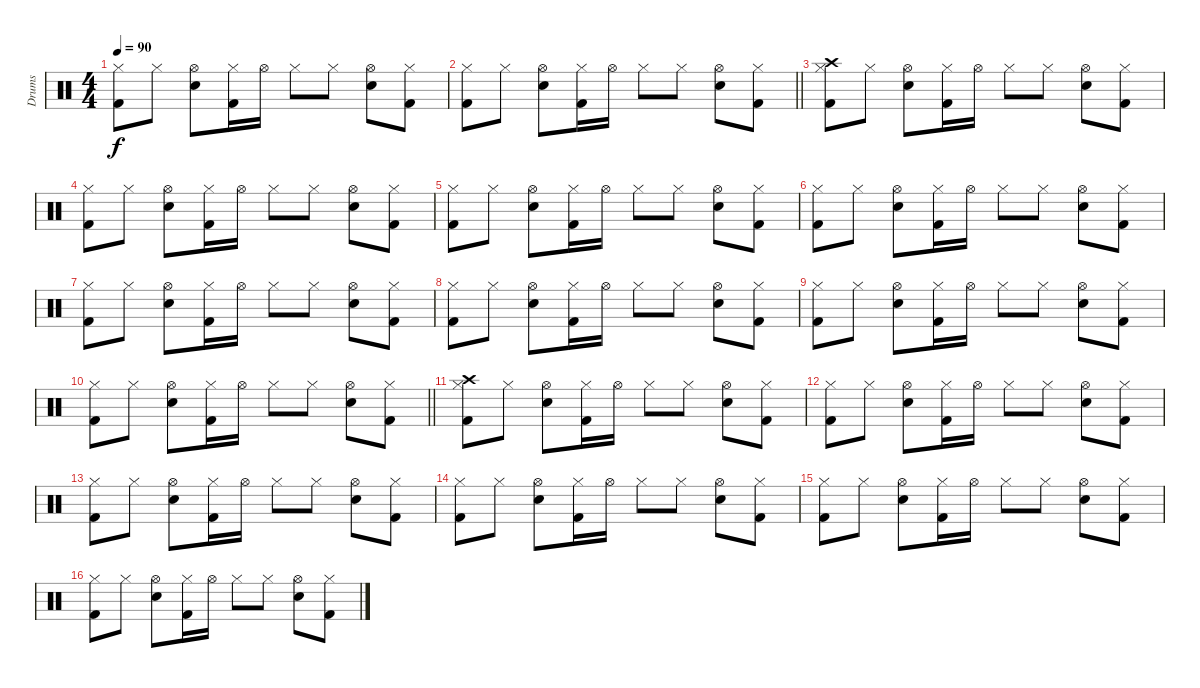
\track ("Drums" "Drums") {instrument percussion}
\staff {score}
\articulation defaults
\ts (4 4)
\tempo 90
\clef neutral
\ks c
("Kick (hit) 2" "Hi-Hat (closed)").8{dy f} "Hi-Hat (closed)".8 ("Snare (hit) 2" "Hi-Hat (open)").8 ("Kick (hit) 2" "Hi-Hat (closed)").16 "Hi-Hat (open)".16 "Hi-Hat (closed)".8 "Hi-Hat (closed)".8 ("Snare (hit) 2" "Hi-Hat (open)").8 ("Kick (hit) 2" "Hi-Hat (closed)").8 |
\barLineRight lightlight
("Kick (hit) 2" "Hi-Hat (closed)").8 "Hi-Hat (closed)".8 ("Snare (hit) 2" "Hi-Hat (open)").8 ("Kick (hit) 2" "Hi-Hat (closed)").16 "Hi-Hat (open)".16 "Hi-Hat (closed)".8 "Hi-Hat (closed)".8 ("Snare (hit) 2" "Hi-Hat (open)").8 ("Kick (hit) 2" "Hi-Hat (closed)").8 |
("Crash high (hit)" "Kick (hit) 2" "Hi-Hat (closed)").8 "Hi-Hat (closed)".8 ("Snare (hit) 2" "Hi-Hat (open)").8 ("Kick (hit) 2" "Hi-Hat (closed)").16 "Hi-Hat (open)".16 "Hi-Hat (closed)".8 "Hi-Hat (closed)".8 ("Snare (hit) 2" "Hi-Hat (open)").8 ("Kick (hit) 2" "Hi-Hat (closed)").8 |
("Kick (hit) 2" "Hi-Hat (closed)").8 "Hi-Hat (closed)".8 ("Snare (hit) 2" "Hi-Hat (open)").8 ("Kick (hit) 2" "Hi-Hat (closed)").16 "Hi-Hat (open)".16 "Hi-Hat (closed)".8 "Hi-Hat (closed)".8 ("Snare (hit) 2" "Hi-Hat (open)").8 ("Kick (hit) 2" "Hi-Hat (closed)").8 |
("Kick (hit) 2" "Hi-Hat (closed)").8 "Hi-Hat (closed)".8 ("Snare (hit) 2" "Hi-Hat (open)").8 ("Kick (hit) 2" "Hi-Hat (closed)").16 "Hi-Hat (open)".16 "Hi-Hat (closed)".8 "Hi-Hat (closed)".8 ("Snare (hit) 2" "Hi-Hat (open)").8 ("Kick (hit) 2" "Hi-Hat (closed)").8 |
("Kick (hit) 2" "Hi-Hat (closed)").8 "Hi-Hat (closed)".8 ("Snare (hit) 2" "Hi-Hat (open)").8 ("Kick (hit) 2" "Hi-Hat (closed)").16 "Hi-Hat (open)".16 "Hi-Hat (closed)".8 "Hi-Hat (closed)".8 ("Snare (hit) 2" "Hi-Hat (open)").8 ("Kick (hit) 2" "Hi-Hat (closed)").8 |
("Kick (hit) 2" "Hi-Hat (closed)").8 "Hi-Hat (closed)".8 ("Snare (hit) 2" "Hi-Hat (open)").8 ("Kick (hit) 2" "Hi-Hat (closed)").16 "Hi-Hat (open)".16 "Hi-Hat (closed)".8 "Hi-Hat (closed)".8 ("Snare (hit) 2" "Hi-Hat (open)").8 ("Kick (hit) 2" "Hi-Hat (closed)").8 |
("Kick (hit) 2" "Hi-Hat (closed)").8 "Hi-Hat (closed)".8 ("Snare (hit) 2" "Hi-Hat (open)").8 ("Kick (hit) 2" "Hi-Hat (closed)").16 "Hi-Hat (open)".16 "Hi-Hat (closed)".8 "Hi-Hat (closed)".8 ("Snare (hit) 2" "Hi-Hat (open)").8 ("Kick (hit) 2" "Hi-Hat (closed)").8 |
("Kick (hit) 2" "Hi-Hat (closed)").8 "Hi-Hat (closed)".8 ("Snare (hit) 2" "Hi-Hat (open)").8 ("Kick (hit) 2" "Hi-Hat (closed)").16 "Hi-Hat (open)".16 "Hi-Hat (closed)".8 "Hi-Hat (closed)".8 ("Snare (hit) 2" "Hi-Hat (open)").8 ("Kick (hit) 2" "Hi-Hat (closed)").8 |
\barLineRight lightlight
("Kick (hit) 2" "Hi-Hat (closed)").8 "Hi-Hat (closed)".8 ("Snare (hit) 2" "Hi-Hat (open)").8 ("Kick (hit) 2" "Hi-Hat (closed)").16 "Hi-Hat (open)".16 "Hi-Hat (closed)".8 "Hi-Hat (closed)".8 ("Snare (hit) 2" "Hi-Hat (open)").8 ("Kick (hit) 2" "Hi-Hat (closed)").8 |
("Crash high (hit)" "Kick (hit) 2" "Hi-Hat (closed)").8 "Hi-Hat (closed)".8 ("Snare (hit) 2" "Hi-Hat (open)").8 ("Kick (hit) 2" "Hi-Hat (closed)").16 "Hi-Hat (open)".16 "Hi-Hat (closed)".8 "Hi-Hat (closed)".8 ("Snare (hit) 2" "Hi-Hat (open)").8 ("Kick (hit) 2" "Hi-Hat (closed)").8 |
("Kick (hit) 2" "Hi-Hat (closed)").8 "Hi-Hat (closed)".8 ("Snare (hit) 2" "Hi-Hat (open)").8 ("Kick (hit) 2" "Hi-Hat (closed)").16 "Hi-Hat (open)".16 "Hi-Hat (closed)".8 "Hi-Hat (closed)".8 ("Snare (hit) 2" "Hi-Hat (open)").8 ("Kick (hit) 2" "Hi-Hat (closed)").8 |
("Kick (hit) 2" "Hi-Hat (closed)").8 "Hi-Hat (closed)".8 ("Snare (hit) 2" "Hi-Hat (open)").8 ("Kick (hit) 2" "Hi-Hat (closed)").16 "Hi-Hat (open)".16 "Hi-Hat (closed)".8 "Hi-Hat (closed)".8 ("Snare (hit) 2" "Hi-Hat (open)").8 ("Kick (hit) 2" "Hi-Hat (closed)").8 |
("Kick (hit) 2" "Hi-Hat (closed)").8 "Hi-Hat (closed)".8 ("Snare (hit) 2" "Hi-Hat (open)").8 ("Kick (hit) 2" "Hi-Hat (closed)").16 "Hi-Hat (open)".16 "Hi-Hat (closed)".8 "Hi-Hat (closed)".8 ("Snare (hit) 2" "Hi-Hat (open)").8 ("Kick (hit) 2" "Hi-Hat (closed)").8 |
("Kick (hit) 2" "Hi-Hat (closed)").8 "Hi-Hat (closed)".8 ("Snare (hit) 2" "Hi-Hat (open)").8 ("Kick (hit) 2" "Hi-Hat (closed)").16 "Hi-Hat (open)".16 "Hi-Hat (closed)".8 "Hi-Hat (closed)".8 ("Snare (hit) 2" "Hi-Hat (open)").8 ("Kick (hit) 2" "Hi-Hat (closed)").8 |
("Kick (hit) 2" "Hi-Hat (closed)").8 "Hi-Hat (closed)".8 ("Snare (hit) 2" "Hi-Hat (open)").8 ("Kick (hit) 2" "Hi-Hat (closed)").16 "Hi-Hat (open)".16 "Hi-Hat (closed)".8 "Hi-Hat (closed)".8 ("Snare (hit) 2" "Hi-Hat (open)").8 ("Kick (hit) 2" "Hi-Hat (closed)").8
